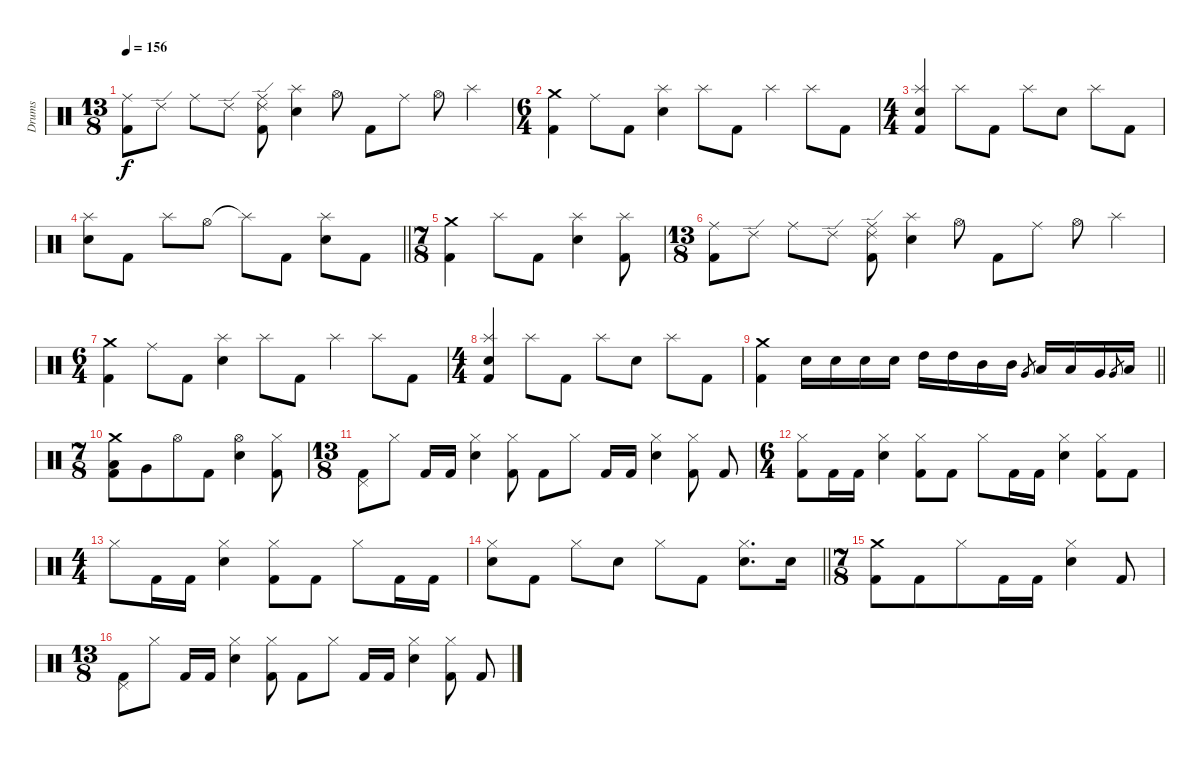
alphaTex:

\track ("Drums" "Drums") {instrument percussion}
\staff {score}
\articulation defaults
\ts (13 8)
\tempo 156
\clef neutral
\ks c
("Ride (middle)" "Kick (hit) 2").8{dy f} "Ride (edge) 2".8 "Ride (middle)".8 "Ride (edge) 2".8 ("Ride (middle)" "Ride (edge) 2" "Kick (hit) 2").8 ("Splash (hit)" "Electric Snare (hit)").4 "Hi-Hat (open)".8 "Kick (hit) 2".8 "Ride (middle)".8 "Hi-Hat (open)".8 "Splash (hit)".4 |
\ts (6 4)
("Crash medium (hit)" "Kick (hit) 2").4 "Ride (middle)".8 "Kick (hit) 2".8 ("Splash (hit)" "Electric Snare (hit)").4 "Splash (hit)".8 "Kick (hit) 2".8 "Splash (hit)".4 "Splash (hit)".8 "Kick (hit) 2".8 |
\ts (4 4)
("Splash (hit)" "Electric Snare (hit)" "Kick (hit) 2").4 "Splash (hit)".8 "Kick (hit) 2".8 "Splash (hit)".8 "Electric Snare (hit)".8 "Splash (hit)".8 "Kick (hit) 2".8 |
\barLineRight lightlight
("Splash (hit)" "Electric Snare (hit)").8 "Kick (hit) 2".8 "Splash (hit)".8 "Hi-Hat (open)".8 "Splash (hit)"{t}.8 "Kick (hit) 2".8 ("Splash (hit)" "Electric Snare (hit)").8 "Kick (hit) 2".8 |
\ts (7 8)
\section ("" "")
("Crash medium (hit)" "Kick (hit) 2").4 "Splash (hit)".8 "Kick (hit) 2".8 ("Splash (hit)" "Electric Snare (hit)").4 ("Splash (hit)" "Kick (hit) 2").8 |
\ts (13 8)
("Ride (middle)" "Kick (hit) 2").8 "Ride (edge) 2".8 "Ride (middle)".8 "Ride (edge) 2".8 ("Ride (middle)" "Ride (edge) 2" "Kick (hit) 2").8 ("Splash (hit)" "Electric Snare (hit)").4 "Hi-Hat (open)".8 "Kick (hit) 2".8 "Ride (middle)".8 "Hi-Hat (open)".8 "Splash (hit)".4 |
\ts (6 4)
("Crash medium (hit)" "Kick (hit) 2").4 "Ride (middle)".8 "Kick (hit) 2".8 ("Splash (hit)" "Electric Snare (hit)").4 "Splash (hit)".8 "Kick (hit) 2".8 "Splash (hit)".4 "Splash (hit)".8 "Kick (hit) 2".8 |
\ts (4 4)
("Splash (hit)" "Electric Snare (hit)" "Kick (hit) 2").4 "Splash (hit)".8 "Kick (hit) 2".8 "Splash (hit)".8 "Electric Snare (hit)".8 "Splash (hit)".8 "Kick (hit) 2".8 |
\barLineRight lightlight
("Crash medium (hit)" "Kick (hit) 2").4 "Electric Snare (hit)".16 "Electric Snare (hit)".16 "Electric Snare (hit)".16 "Electric Snare (hit)".16 "High Tom (hit)".16 "High Tom (hit)".16 "Mid Tom (hit)".16 "Mid Tom (hit)".16 "Very Low Tom (hit)".8{gr} "Low Tom (hit)".16 "Low Tom (hit)".16 "Very Low Tom (hit)".16 "Very Low Tom (hit)".8{gr} "Low Floor Tom (hit)".16 |
\ts (7 8)
\section ("" "")
("Crash medium (hit)" "Low Tom (hit)" "Kick (hit) 2").8 "Very Low Tom (hit)".8 "Hi-Hat (open)".8 "Kick (hit) 2".8 ("Hi-Hat (open)" "Electric Snare (hit)").4 ("Hi-Hat (closed)" "Kick (hit) 2").8 |
\ts (13 8)
("Pedal Hi-Hat (hit)" "Kick (hit) 2").8 "Hi-Hat (closed)".8 "Kick (hit) 2".16 "Kick (hit) 2".16 ("Hi-Hat (closed)" "Electric Snare (hit)").4 ("Hi-Hat (closed)" "Kick (hit) 2").8 "Kick (hit) 2".8 "Hi-Hat (closed)".8 "Kick (hit) 2".16 "Kick (hit) 2".16 ("Hi-Hat (closed)" "Electric Snare (hit)").4 ("Hi-Hat (closed)" "Kick (hit) 2").8 "Kick (hit) 2".8 |
\ts (6 4)
("Hi-Hat (closed)" "Kick (hit) 2").8 "Kick (hit) 2".16 "Kick (hit) 2".16 ("Hi-Hat (closed)" "Electric Snare (hit)").4 ("Hi-Hat (closed)" "Kick (hit) 2").8 "Kick (hit) 2".8 "Hi-Hat (closed)".8 "Kick (hit) 2".16 "Kick (hit) 2".16 ("Hi-Hat (closed)" "Electric Snare (hit)").4 ("Hi-Hat (closed)" "Kick (hit) 2").8 "Kick (hit) 2".8 |
\ts (4 4)
"Hi-Hat (closed)".8 "Kick (hit) 2".16 "Kick (hit) 2".16 ("Hi-Hat (closed)" "Electric Snare (hit)").4 ("Hi-Hat (closed)" "Kick (hit) 2").8 "Kick (hit) 2".8 "Hi-Hat (closed)".8 "Kick (hit) 2".16 "Kick (hit) 2".16 |
\barLineRight lightlight
("Hi-Hat (closed)" "Electric Snare (hit)").8 "Kick (hit) 2".8 "Hi-Hat (closed)".8 "Electric Snare (hit)".8 "Hi-Hat (closed)".8 "Kick (hit) 2".8 ("Hi-Hat (closed)" "Electric Snare (hit)").8{d} "Electric Snare (hit)".16 |
\ts (7 8)
\section ("" "")
("Crash medium (hit)" "Kick (hit) 2").8 "Kick (hit) 2".8 "Hi-Hat (closed)".8 "Kick (hit) 2".16 "Kick (hit) 2".16 ("Hi-Hat (closed)" "Electric Snare (hit)").4 "Kick (hit) 2".8 |
\ts (13 8)
("Pedal Hi-Hat (hit)" "Kick (hit) 2").8 "Hi-Hat (closed)".8 "Kick (hit) 2".16 "Kick (hit) 2".16 ("Hi-Hat (closed)" "Electric Snare (hit)").4 ("Hi-Hat (closed)" "Kick (hit) 2").8 "Kick (hit) 2".8 "Hi-Hat (closed)".8 "Kick (hit) 2".16 "Kick (hit) 2".16 ("Hi-Hat (closed)" "Electric Snare (hit)").4 ("Hi-Hat (closed)" "Kick (hit) 2").8 "Kick (hit) 2".8
